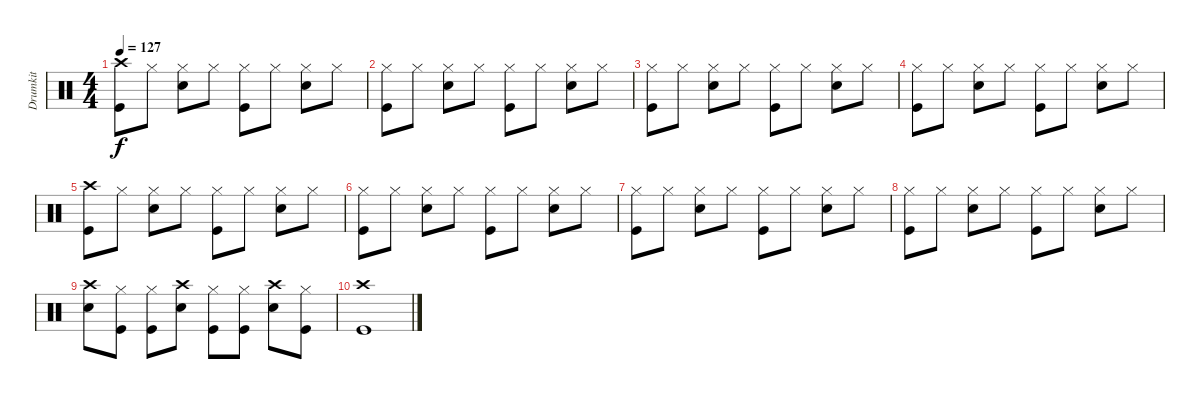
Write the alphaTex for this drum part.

\track ("Drumkit" "Drumkit") {instrument percussion}
\staff {score}
\articulation defaults
\ts (4 4)
\tempo 127
\clef neutral
\ks c
("Crash high (hit)" "Kick (hit)").8{dy f} "Hi-Hat (closed)".8 ("Hi-Hat (closed)" "Snare (hit) 2").8 "Hi-Hat (closed)".8 ("Hi-Hat (closed)" "Kick (hit)").8 "Hi-Hat (closed)".8 ("Hi-Hat (closed)" "Snare (hit) 2").8 "Hi-Hat (closed)".8 |
("Hi-Hat (closed)" "Kick (hit)").8 "Hi-Hat (closed)".8 ("Hi-Hat (closed)" "Snare (hit) 2").8 "Hi-Hat (closed)".8 ("Hi-Hat (closed)" "Kick (hit)").8 "Hi-Hat (closed)".8 ("Hi-Hat (closed)" "Snare (hit) 2").8 "Hi-Hat (closed)".8 |
("Kick (hit)" "Hi-Hat (closed)").8 "Hi-Hat (closed)".8 ("Hi-Hat (closed)" "Snare (hit) 2").8 "Hi-Hat (closed)".8 ("Hi-Hat (closed)" "Kick (hit)").8 "Hi-Hat (closed)".8 ("Hi-Hat (closed)" "Snare (hit) 2").8 "Hi-Hat (closed)".8 |
("Hi-Hat (closed)" "Kick (hit)").8 "Hi-Hat (closed)".8 ("Hi-Hat (closed)" "Snare (hit) 2").8 "Hi-Hat (closed)".8 ("Hi-Hat (closed)" "Kick (hit)").8 "Hi-Hat (closed)".8 ("Hi-Hat (closed)" "Snare (hit) 2").8 "Hi-Hat (closed)".8 |
("Crash high (hit)" "Kick (hit)").8 "Hi-Hat (closed)".8 ("Hi-Hat (closed)" "Snare (hit) 2").8 "Hi-Hat (closed)".8 ("Hi-Hat (closed)" "Kick (hit)").8 "Hi-Hat (closed)".8 ("Hi-Hat (closed)" "Snare (hit) 2").8 "Hi-Hat (closed)".8 |
("Hi-Hat (closed)" "Kick (hit)").8 "Hi-Hat (closed)".8 ("Hi-Hat (closed)" "Snare (hit) 2").8 "Hi-Hat (closed)".8 ("Hi-Hat (closed)" "Kick (hit)").8 "Hi-Hat (closed)".8 ("Hi-Hat (closed)" "Snare (hit) 2").8 "Hi-Hat (closed)".8 |
("Kick (hit)" "Hi-Hat (closed)").8 "Hi-Hat (closed)".8 ("Hi-Hat (closed)" "Snare (hit) 2").8 "Hi-Hat (closed)".8 ("Hi-Hat (closed)" "Kick (hit)").8 "Hi-Hat (closed)".8 ("Hi-Hat (closed)" "Snare (hit) 2").8 "Hi-Hat (closed)".8 |
("Hi-Hat (closed)" "Kick (hit)").8 "Hi-Hat (closed)".8 ("Hi-Hat (closed)" "Snare (hit) 2").8 "Hi-Hat (closed)".8 ("Hi-Hat (closed)" "Kick (hit)").8 "Hi-Hat (closed)".8 ("Hi-Hat (closed)" "Snare (hit) 2").8 "Hi-Hat (closed)".8 |
("Crash high (hit)" "Snare (hit) 2").8 ("Hi-Hat (closed)" "Kick (hit)").8 ("Hi-Hat (closed)" "Kick (hit)").8 ("Crash high (hit)" "Snare (hit) 2").8 ("Hi-Hat (closed)" "Kick (hit)").8 ("Hi-Hat (closed)" "Kick (hit)").8 ("Crash high (hit)" "Snare (hit) 2").8 ("Hi-Hat (closed)" "Kick (hit)").8 |
("Crash high (hit)" "Kick (hit)").1
